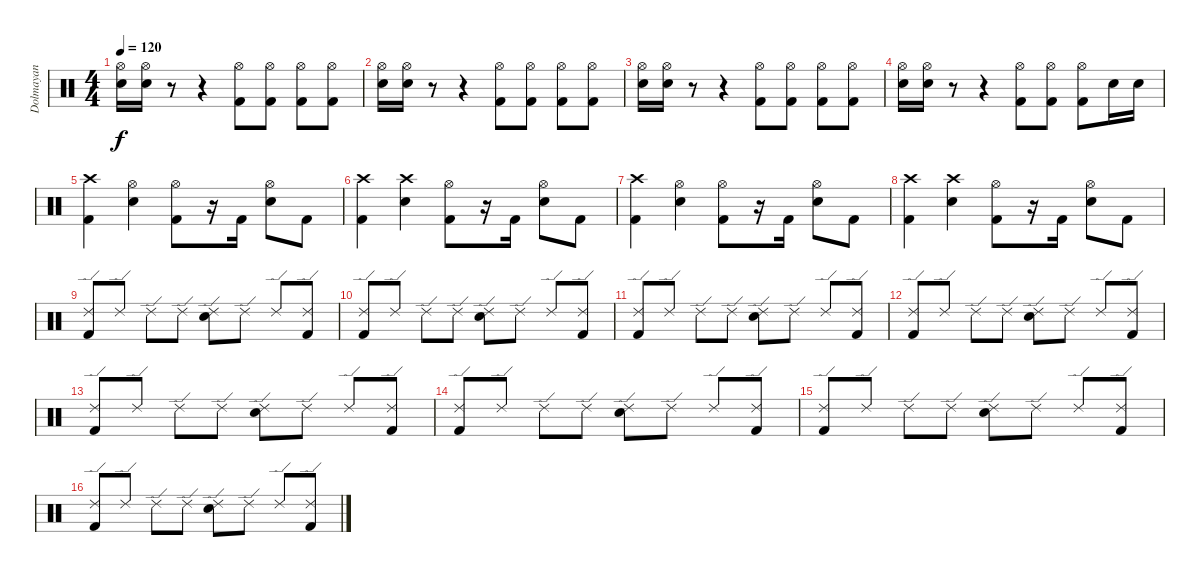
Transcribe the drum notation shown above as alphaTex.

\track ("Dolmayan" "Dolmayan") {instrument percussion}
\staff {score}
\articulation defaults
\ts (4 4)
\tempo 120
\clef neutral
\ks c
("Hi-Hat (open)" "Snare (hit) 2").16{dy f} ("Hi-Hat (open)" "Snare (hit) 2").16 r.8 r.4 ("Hi-Hat (open)" "Kick (hit) 2").8 ("Hi-Hat (open)" "Kick (hit) 2").8 ("Hi-Hat (open)" "Kick (hit) 2").8 ("Hi-Hat (open)" "Kick (hit) 2").8 |
("Hi-Hat (open)" "Snare (hit) 2").16 ("Hi-Hat (open)" "Snare (hit) 2").16 r.8 r.4 ("Hi-Hat (open)" "Kick (hit) 2").8 ("Hi-Hat (open)" "Kick (hit) 2").8 ("Hi-Hat (open)" "Kick (hit) 2").8 ("Hi-Hat (open)" "Kick (hit) 2").8 |
("Hi-Hat (open)" "Snare (hit) 2").16 ("Hi-Hat (open)" "Snare (hit) 2").16 r.8 r.4 ("Hi-Hat (open)" "Kick (hit) 2").8 ("Hi-Hat (open)" "Kick (hit) 2").8 ("Hi-Hat (open)" "Kick (hit) 2").8 ("Hi-Hat (open)" "Kick (hit) 2").8 |
("Hi-Hat (open)" "Snare (hit) 2").16 ("Hi-Hat (open)" "Snare (hit) 2").16 r.8 r.4 ("Hi-Hat (open)" "Kick (hit) 2").8 ("Hi-Hat (open)" "Kick (hit) 2").8 ("Hi-Hat (open)" "Kick (hit) 2").8 "Snare (hit) 2".16 "Snare (hit) 2".16 |
("Crash high (hit)" "Kick (hit) 2").4 ("Hi-Hat (open)" "Snare (hit) 2").4 ("Hi-Hat (open)" "Kick (hit) 2").8 r.16 "Kick (hit) 2".16 ("Hi-Hat (open)" "Snare (hit) 2").8 "Kick (hit) 2".8 |
("Crash high (hit)" "Kick (hit) 2").4 ("Crash high (hit)" "Snare (hit) 2").4 ("Hi-Hat (open)" "Kick (hit) 2").8 r.16 "Kick (hit) 2".16 ("Hi-Hat (open)" "Snare (hit) 2").8 "Kick (hit) 2".8 |
("Crash high (hit)" "Kick (hit) 2").4 ("Hi-Hat (open)" "Snare (hit) 2").4 ("Hi-Hat (open)" "Kick (hit) 2").8 r.16 "Kick (hit) 2".16 ("Hi-Hat (open)" "Snare (hit) 2").8 "Kick (hit) 2".8 |
("Crash high (hit)" "Kick (hit) 2").4 ("Crash high (hit)" "Snare (hit) 2").4 ("Hi-Hat (open)" "Kick (hit) 2").8 r.16 "Kick (hit) 2".16 ("Hi-Hat (open)" "Snare (hit) 2").8 "Kick (hit) 2".8 |
("Ride (edge) 2" "Kick (hit) 2").8 "Ride (edge) 2".8 "Ride (edge) 2".8 "Ride (edge) 2".8 ("Ride (edge) 2" "Snare (hit) 2").8 "Ride (edge) 2".8 "Ride (edge) 2".8 ("Ride (edge) 2" "Kick (hit) 2").8 |
("Ride (edge) 2" "Kick (hit) 2").8 "Ride (edge) 2".8 "Ride (edge) 2".8 "Ride (edge) 2".8 ("Ride (edge) 2" "Snare (hit) 2").8 "Ride (edge) 2".8 "Ride (edge) 2".8 ("Ride (edge) 2" "Kick (hit) 2").8 |
("Ride (edge) 2" "Kick (hit) 2").8 "Ride (edge) 2".8 "Ride (edge) 2".8 "Ride (edge) 2".8 ("Ride (edge) 2" "Snare (hit) 2").8 "Ride (edge) 2".8 "Ride (edge) 2".8 ("Ride (edge) 2" "Kick (hit) 2").8 |
("Ride (edge) 2" "Kick (hit) 2").8 "Ride (edge) 2".8 "Ride (edge) 2".8 "Ride (edge) 2".8 ("Ride (edge) 2" "Snare (hit) 2").8 "Ride (edge) 2".8 "Ride (edge) 2".8 ("Ride (edge) 2" "Kick (hit) 2").8 |
("Ride (edge) 2" "Kick (hit) 2").8 "Ride (edge) 2".8 "Ride (edge) 2".8 "Ride (edge) 2".8 ("Ride (edge) 2" "Snare (hit) 2").8 "Ride (edge) 2".8 "Ride (edge) 2".8 ("Ride (edge) 2" "Kick (hit) 2").8 |
("Ride (edge) 2" "Kick (hit) 2").8 "Ride (edge) 2".8 "Ride (edge) 2".8 "Ride (edge) 2".8 ("Ride (edge) 2" "Snare (hit) 2").8 "Ride (edge) 2".8 "Ride (edge) 2".8 ("Ride (edge) 2" "Kick (hit) 2").8 |
("Ride (edge) 2" "Kick (hit) 2").8 "Ride (edge) 2".8 "Ride (edge) 2".8 "Ride (edge) 2".8 ("Ride (edge) 2" "Snare (hit) 2").8 "Ride (edge) 2".8 "Ride (edge) 2".8 ("Ride (edge) 2" "Kick (hit) 2").8 |
("Ride (edge) 2" "Kick (hit) 2").8 "Ride (edge) 2".8 "Ride (edge) 2".8 "Ride (edge) 2".8 ("Ride (edge) 2" "Snare (hit) 2").8 "Ride (edge) 2".8 "Ride (edge) 2".8 ("Ride (edge) 2" "Kick (hit) 2").8
